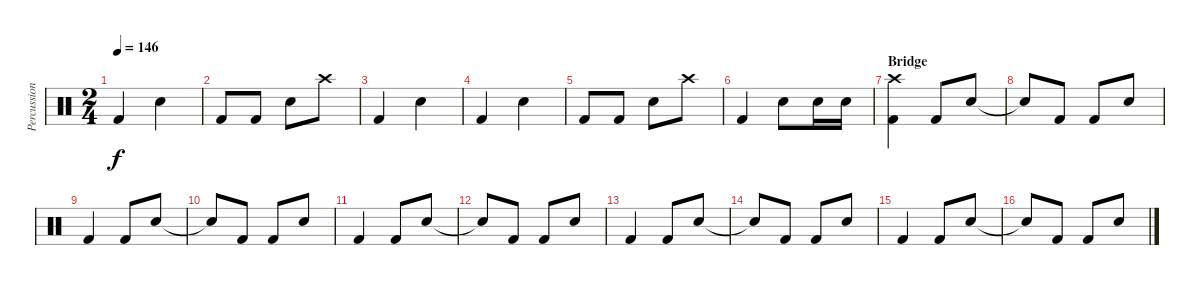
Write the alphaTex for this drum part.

\track ("Percussion" "Percussion") {instrument percussion}
\staff {score}
\articulation defaults
\ts (2 4)
\tempo 146
\clef neutral
\ks c "Kick (hit) 2".4{dy f} "Electric Snare (hit)".4
|
"Kick (hit) 2".8 "Kick (hit) 2".8 "Electric Snare (hit)".8 "Crash high (hit)".8 |
"Kick (hit) 2".4 "Electric Snare (hit)".4 |
"Kick (hit) 2".4 "Electric Snare (hit)".4 |
"Kick (hit) 2".8 "Kick (hit) 2".8 "Electric Snare (hit)".8 "Crash high (hit)".8 |
"Kick (hit) 2".4 "Electric Snare (hit)".8 "Electric Snare (hit)".16 "Electric Snare (hit)".16 |
\section ("" "Bridge")
("Crash high (hit)" "Kick (hit) 2").4 "Kick (hit) 2".8 "Electric Snare (hit)".8 |
"Snare (hit)"{t}.8 "Kick (hit) 2".8 "Kick (hit) 2".8 "Electric Snare (hit)".8 |
"Kick (hit) 2".4 "Kick (hit) 2".8 "Electric Snare (hit)".8 |
"Snare (hit)"{t}.8 "Kick (hit) 2".8 "Kick (hit) 2".8 "Electric Snare (hit)".8 |
"Kick (hit) 2".4 "Kick (hit) 2".8 "Electric Snare (hit)".8 |
"Snare (hit)"{t}.8 "Kick (hit) 2".8 "Kick (hit) 2".8 "Electric Snare (hit)".8 |
"Kick (hit) 2".4 "Kick (hit) 2".8 "Electric Snare (hit)".8 |
"Snare (hit)"{t}.8 "Kick (hit) 2".8 "Kick (hit) 2".8 "Electric Snare (hit)".8 |
"Kick (hit) 2".4 "Kick (hit) 2".8 "Electric Snare (hit)".8 |
"Snare (hit)"{t}.8 "Kick (hit) 2".8 "Kick (hit) 2".8 "Electric Snare (hit)".8
